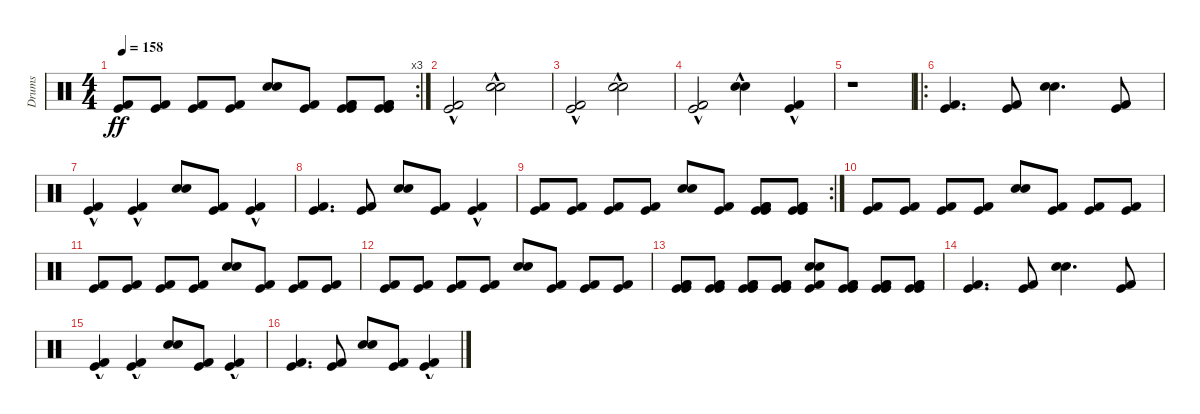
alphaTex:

\track ("Drums" "Drums") {instrument percussion}
\staff {score}
\articulation defaults
\rc 3
\ts (4 4)
\tempo 158
\clef neutral
\ks c
("Kick (hit)" "Kick (hit) 2").8{dy ff} ("Kick (hit)" "Kick (hit) 2").8 ("Kick (hit)" "Kick (hit) 2").8 ("Kick (hit)" "Kick (hit) 2").8 ("Snare (hit) 2" "Electric Snare (hit)").8 ("Kick (hit)" "Kick (hit) 2").8 ("Kick (hit)" "Kick (hit) 2" "Kick (hit)" "Kick (hit) 2").8 ("Kick (hit)" "Kick (hit) 2" "Kick (hit)" "Kick (hit) 2").8 |
("Kick (hit)"{hac} "Kick (hit) 2"{hac}).2 ("Snare (hit) 2"{hac} "Electric Snare (hit)"{hac}).2 |
("Kick (hit)"{hac} "Kick (hit) 2"{hac}).2 ("Snare (hit) 2"{hac} "Electric Snare (hit)"{hac}).2 |
("Kick (hit)"{hac} "Kick (hit) 2"{hac}).2 ("Snare (hit) 2"{hac} "Electric Snare (hit)"{hac}).4 ("Kick (hit)"{hac} "Kick (hit) 2"{hac}).4 |
r.1 |
\ro
("Kick (hit)" "Kick (hit) 2").4{d} ("Kick (hit)" "Kick (hit) 2").8 ("Snare (hit) 2" "Electric Snare (hit)").4{d} ("Kick (hit)" "Kick (hit) 2").8 |
("Kick (hit)"{hac} "Kick (hit) 2"{hac}).4 ("Kick (hit)"{hac} "Kick (hit) 2"{hac}).4 ("Snare (hit) 2" "Electric Snare (hit)").8 ("Kick (hit)" "Kick (hit) 2").8 ("Kick (hit)"{hac} "Kick (hit) 2"{hac}).4 |
("Kick (hit)" "Kick (hit) 2").4{d} ("Kick (hit)" "Kick (hit) 2").8 ("Snare (hit) 2" "Electric Snare (hit)").8 ("Kick (hit)" "Kick (hit) 2").8 ("Kick (hit)"{hac} "Kick (hit) 2"{hac}).4 |
\rc 2
("Kick (hit)" "Kick (hit) 2").8 ("Kick (hit)" "Kick (hit) 2").8 ("Kick (hit)" "Kick (hit) 2").8 ("Kick (hit)" "Kick (hit) 2").8 ("Snare (hit) 2" "Electric Snare (hit)").8 ("Kick (hit)" "Kick (hit) 2").8 ("Kick (hit)" "Kick (hit) 2" "Kick (hit)" "Kick (hit) 2").8 ("Kick (hit)" "Kick (hit) 2" "Kick (hit)" "Kick (hit) 2").8 |
("Kick (hit)" "Kick (hit) 2").8 ("Kick (hit)" "Kick (hit) 2").8 ("Kick (hit)" "Kick (hit) 2").8 ("Kick (hit)" "Kick (hit) 2").8 ("Snare (hit) 2" "Electric Snare (hit)").8 ("Kick (hit)" "Kick (hit) 2").8 ("Kick (hit)" "Kick (hit) 2").8 ("Kick (hit)" "Kick (hit) 2").8 |
("Kick (hit)" "Kick (hit) 2").8 ("Kick (hit)" "Kick (hit) 2").8 ("Kick (hit)" "Kick (hit) 2").8 ("Kick (hit)" "Kick (hit) 2").8 ("Snare (hit) 2" "Electric Snare (hit)").8 ("Kick (hit)" "Kick (hit) 2").8 ("Kick (hit)" "Kick (hit) 2").8 ("Kick (hit)" "Kick (hit) 2").8 |
("Kick (hit)" "Kick (hit) 2").8 ("Kick (hit)" "Kick (hit) 2").8 ("Kick (hit)" "Kick (hit) 2").8 ("Kick (hit)" "Kick (hit) 2").8 ("Snare (hit) 2" "Electric Snare (hit)").8 ("Kick (hit)" "Kick (hit) 2").8 ("Kick (hit)" "Kick (hit) 2").8 ("Kick (hit)" "Kick (hit) 2").8 |
("Kick (hit)" "Kick (hit) 2" "Kick (hit)" "Kick (hit) 2").8 ("Kick (hit)" "Kick (hit) 2" "Kick (hit)" "Kick (hit) 2").8 ("Kick (hit)" "Kick (hit) 2" "Kick (hit)" "Kick (hit) 2").8 ("Kick (hit)" "Kick (hit) 2" "Kick (hit)" "Kick (hit) 2").8 ("Snare (hit) 2" "Electric Snare (hit)" "Kick (hit)" "Kick (hit) 2").8 ("Kick (hit)" "Kick (hit) 2" "Kick (hit)" "Kick (hit) 2").8 ("Kick (hit)" "Kick (hit) 2" "Kick (hit)" "Kick (hit) 2").8 ("Kick (hit)" "Kick (hit) 2" "Kick (hit)" "Kick (hit) 2").8 |
("Kick (hit)" "Kick (hit) 2").4{d} ("Kick (hit)" "Kick (hit) 2").8 ("Snare (hit) 2" "Electric Snare (hit)").4{d} ("Kick (hit)" "Kick (hit) 2").8 |
("Kick (hit)"{hac} "Kick (hit) 2"{hac}).4 ("Kick (hit)"{hac} "Kick (hit) 2"{hac}).4 ("Snare (hit) 2" "Electric Snare (hit)").8 ("Kick (hit)" "Kick (hit) 2").8 ("Kick (hit)"{hac} "Kick (hit) 2"{hac}).4 |
("Kick (hit)" "Kick (hit) 2").4{d} ("Kick (hit)" "Kick (hit) 2").8 ("Snare (hit) 2" "Electric Snare (hit)").8 ("Kick (hit)" "Kick (hit) 2").8 ("Kick (hit)"{hac} "Kick (hit) 2"{hac}).4
